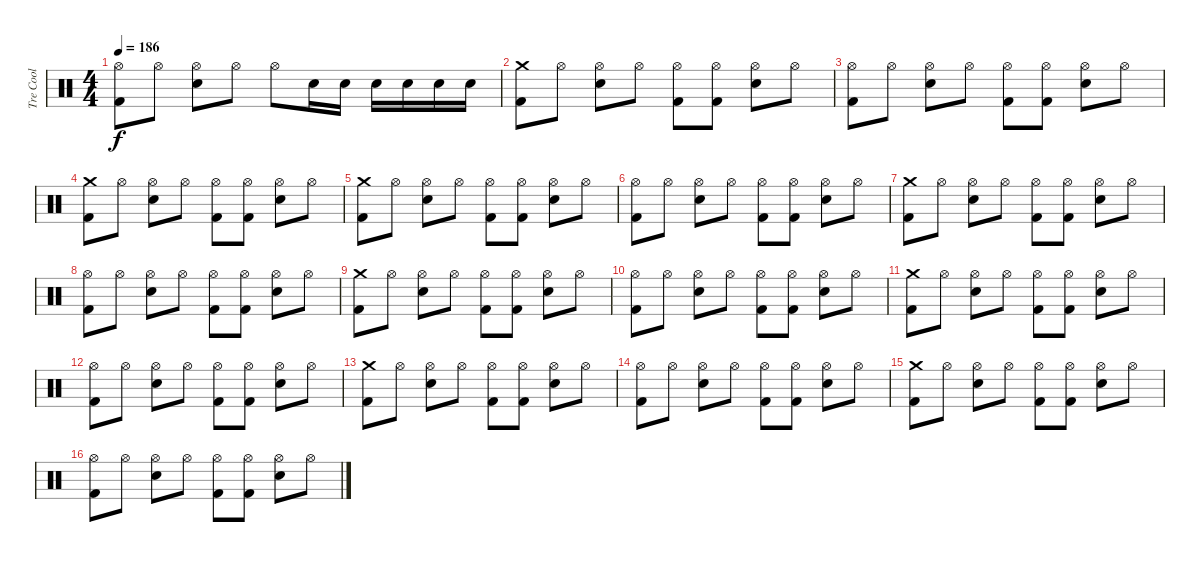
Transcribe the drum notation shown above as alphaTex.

\track ("Tre Cool" "Tre Cool") {instrument percussion}
\staff {score}
\articulation defaults
\ts (4 4)
\tempo 186
\clef neutral
\ks c
("Hi-Hat (open)" "Kick (hit) 2").8{dy f} "Hi-Hat (open)".8 ("Hi-Hat (open)" "Snare (hit) 2").8 "Hi-Hat (open)".8 "Hi-Hat (open)".8 "Electric Snare (hit)".16 "Electric Snare (hit)".16 "Electric Snare (hit)".16 "Electric Snare (hit)".16 "Electric Snare (hit)".16 "Electric Snare (hit)".16 |
("Crash medium (hit)" "Kick (hit) 2").8 "Hi-Hat (open)".8 ("Hi-Hat (open)" "Snare (hit) 2").8 "Hi-Hat (open)".8 ("Hi-Hat (open)" "Kick (hit) 2").8 ("Hi-Hat (open)" "Kick (hit) 2").8 ("Hi-Hat (open)" "Snare (hit) 2").8 "Hi-Hat (open)".8 |
("Hi-Hat (open)" "Kick (hit) 2").8 "Hi-Hat (open)".8 ("Hi-Hat (open)" "Snare (hit) 2").8 "Hi-Hat (open)".8 ("Hi-Hat (open)" "Kick (hit) 2").8 ("Hi-Hat (open)" "Kick (hit) 2").8 ("Hi-Hat (open)" "Snare (hit) 2").8 "Hi-Hat (open)".8 |
("Crash medium (hit)" "Kick (hit) 2").8 "Hi-Hat (open)".8 ("Hi-Hat (open)" "Snare (hit) 2").8 "Hi-Hat (open)".8 ("Hi-Hat (open)" "Kick (hit) 2").8 ("Hi-Hat (open)" "Kick (hit) 2").8 ("Hi-Hat (open)" "Snare (hit) 2").8 "Hi-Hat (open)".8 |
("Crash medium (hit)" "Kick (hit) 2").8 "Hi-Hat (open)".8 ("Hi-Hat (open)" "Snare (hit) 2").8 "Hi-Hat (open)".8 ("Hi-Hat (open)" "Kick (hit) 2").8 ("Hi-Hat (open)" "Kick (hit) 2").8 ("Hi-Hat (open)" "Snare (hit) 2").8 "Hi-Hat (open)".8 |
("Hi-Hat (open)" "Kick (hit) 2").8 "Hi-Hat (open)".8 ("Hi-Hat (open)" "Snare (hit) 2").8 "Hi-Hat (open)".8 ("Hi-Hat (open)" "Kick (hit) 2").8 ("Hi-Hat (open)" "Kick (hit) 2").8 ("Hi-Hat (open)" "Snare (hit) 2").8 "Hi-Hat (open)".8 |
("Crash medium (hit)" "Kick (hit) 2").8 "Hi-Hat (open)".8 ("Hi-Hat (open)" "Snare (hit) 2").8 "Hi-Hat (open)".8 ("Hi-Hat (open)" "Kick (hit) 2").8 ("Hi-Hat (open)" "Kick (hit) 2").8 ("Hi-Hat (open)" "Snare (hit) 2").8 "Hi-Hat (open)".8 |
("Hi-Hat (open)" "Kick (hit) 2").8 "Hi-Hat (open)".8 ("Hi-Hat (open)" "Snare (hit) 2").8 "Hi-Hat (open)".8 ("Hi-Hat (open)" "Kick (hit) 2").8 ("Hi-Hat (open)" "Kick (hit) 2").8 ("Hi-Hat (open)" "Snare (hit) 2").8 "Hi-Hat (open)".8 |
("Crash medium (hit)" "Kick (hit) 2").8 "Hi-Hat (open)".8 ("Hi-Hat (open)" "Snare (hit) 2").8 "Hi-Hat (open)".8 ("Hi-Hat (open)" "Kick (hit) 2").8 ("Hi-Hat (open)" "Kick (hit) 2").8 ("Hi-Hat (open)" "Snare (hit) 2").8 "Hi-Hat (open)".8 |
("Hi-Hat (open)" "Kick (hit) 2").8 "Hi-Hat (open)".8 ("Hi-Hat (open)" "Snare (hit) 2").8 "Hi-Hat (open)".8 ("Hi-Hat (open)" "Kick (hit) 2").8 ("Hi-Hat (open)" "Kick (hit) 2").8 ("Hi-Hat (open)" "Snare (hit) 2").8 "Hi-Hat (open)".8 |
("Crash medium (hit)" "Kick (hit) 2").8 "Hi-Hat (open)".8 ("Hi-Hat (open)" "Snare (hit) 2").8 "Hi-Hat (open)".8 ("Hi-Hat (open)" "Kick (hit) 2").8 ("Hi-Hat (open)" "Kick (hit) 2").8 ("Hi-Hat (open)" "Snare (hit) 2").8 "Hi-Hat (open)".8 |
("Hi-Hat (open)" "Kick (hit) 2").8 "Hi-Hat (open)".8 ("Hi-Hat (open)" "Snare (hit) 2").8 "Hi-Hat (open)".8 ("Hi-Hat (open)" "Kick (hit) 2").8 ("Hi-Hat (open)" "Kick (hit) 2").8 ("Hi-Hat (open)" "Snare (hit) 2").8 "Hi-Hat (open)".8 |
("Crash medium (hit)" "Kick (hit) 2").8 "Hi-Hat (open)".8 ("Hi-Hat (open)" "Snare (hit) 2").8 "Hi-Hat (open)".8 ("Hi-Hat (open)" "Kick (hit) 2").8 ("Hi-Hat (open)" "Kick (hit) 2").8 ("Hi-Hat (open)" "Snare (hit) 2").8 "Hi-Hat (open)".8 |
("Hi-Hat (open)" "Kick (hit) 2").8 "Hi-Hat (open)".8 ("Hi-Hat (open)" "Snare (hit) 2").8 "Hi-Hat (open)".8 ("Hi-Hat (open)" "Kick (hit) 2").8 ("Hi-Hat (open)" "Kick (hit) 2").8 ("Hi-Hat (open)" "Snare (hit) 2").8 "Hi-Hat (open)".8 |
("Crash medium (hit)" "Kick (hit) 2").8 "Hi-Hat (open)".8 ("Hi-Hat (open)" "Snare (hit) 2").8 "Hi-Hat (open)".8 ("Hi-Hat (open)" "Kick (hit) 2").8 ("Hi-Hat (open)" "Kick (hit) 2").8 ("Hi-Hat (open)" "Snare (hit) 2").8 "Hi-Hat (open)".8 |
("Hi-Hat (open)" "Kick (hit) 2").8 "Hi-Hat (open)".8 ("Hi-Hat (open)" "Snare (hit) 2").8 "Hi-Hat (open)".8 ("Hi-Hat (open)" "Kick (hit) 2").8 ("Hi-Hat (open)" "Kick (hit) 2").8 ("Hi-Hat (open)" "Snare (hit) 2").8 "Hi-Hat (open)".8
